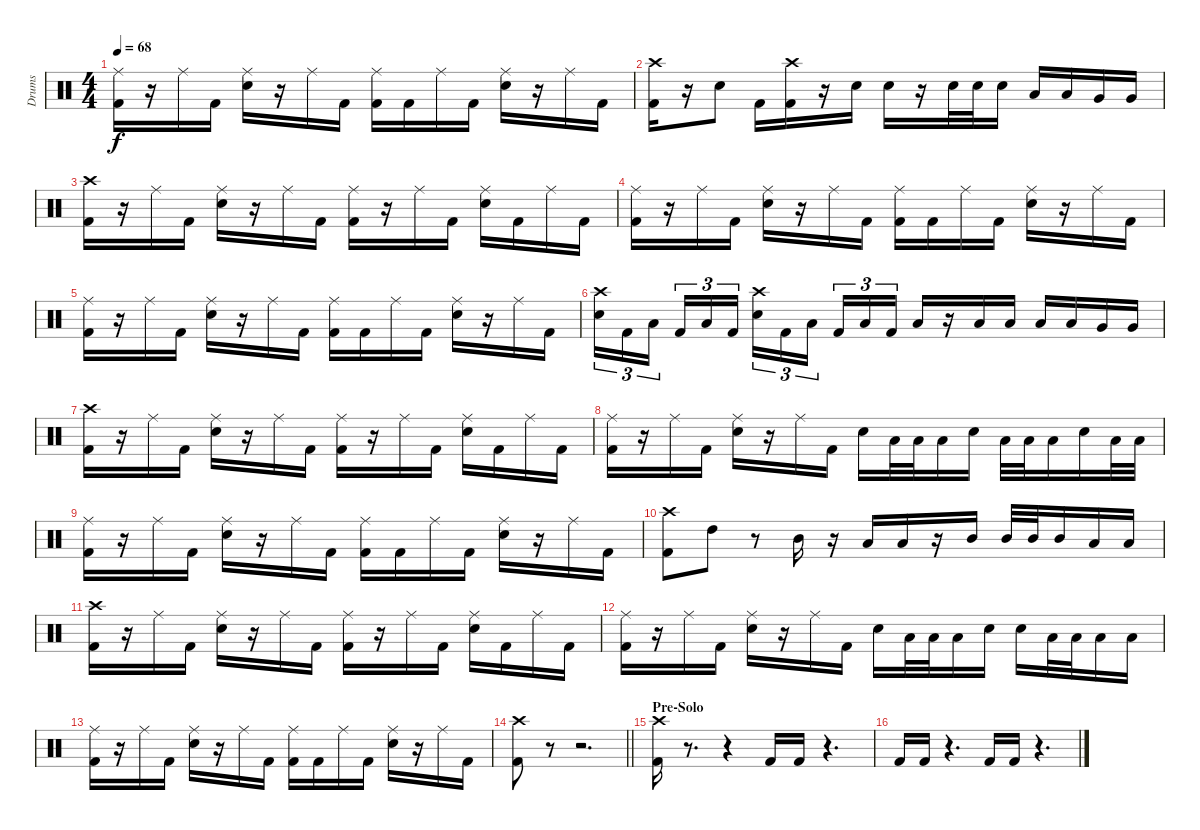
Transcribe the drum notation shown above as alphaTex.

\track ("Drums" "Drums") {instrument percussion}
\staff {score}
\articulation defaults
\ts (4 4)
\tempo 68
\clef neutral
\ks c
("Ride (middle)" "Kick (hit) 2").16{dy f} r.16 "Ride (middle)".16 "Kick (hit) 2".16 ("Ride (middle)" "Snare (hit) 2").16 r.16 "Ride (middle)".16 "Kick (hit) 2".16 ("Ride (middle)" "Kick (hit) 2").16 "Kick (hit) 2".16 "Ride (middle)".16 "Kick (hit) 2".16 ("Ride (middle)" "Snare (hit) 2").16 r.16 "Ride (middle)".16 "Kick (hit) 2".16 |
("Crash high (hit)" "Kick (hit) 2").16 r.16 "Snare (hit) 2".8 "Kick (hit) 2".16 ("Crash high (hit)" "Kick (hit) 2").16 r.16 "Snare (hit) 2".16 "Snare (hit) 2".16 r.16 "Snare (hit) 2".32 "Snare (hit) 2".32 "Snare (hit) 2".16 "Low Tom (hit)".16 "Low Tom (hit)".16 "Very Low Tom (hit)".16 "Very Low Tom (hit)".16 |
("Crash high (hit)" "Kick (hit) 2").16 r.16 "Ride (middle)".16 "Kick (hit) 2".16 ("Ride (middle)" "Snare (hit) 2").16 r.16 "Ride (middle)".16 "Kick (hit) 2".16 ("Ride (middle)" "Kick (hit) 2").16 r.16 "Ride (middle)".16 "Kick (hit) 2".16 ("Ride (middle)" "Snare (hit) 2").16 "Kick (hit) 2".16 "Ride (middle)".16 "Kick (hit) 2".16 |
("Ride (middle)" "Kick (hit) 2").16 r.16 "Ride (middle)".16 "Kick (hit) 2".16 ("Ride (middle)" "Snare (hit) 2").16 r.16 "Ride (middle)".16 "Kick (hit) 2".16 ("Ride (middle)" "Kick (hit) 2").16 "Kick (hit) 2".16 "Ride (middle)".16 "Kick (hit) 2".16 ("Ride (middle)" "Snare (hit) 2").16 r.16 "Ride (middle)".16 "Kick (hit) 2".16 |
("Ride (middle)" "Kick (hit) 2").16 r.16 "Ride (middle)".16 "Kick (hit) 2".16 ("Ride (middle)" "Snare (hit) 2").16 r.16 "Ride (middle)".16 "Kick (hit) 2".16 ("Ride (middle)" "Kick (hit) 2").16 "Kick (hit) 2".16 "Ride (middle)".16 "Kick (hit) 2".16 ("Ride (middle)" "Snare (hit) 2").16 r.16 "Ride (middle)".16 "Kick (hit) 2".16 |
("Crash high (hit)" "Snare (hit) 2").16{tu (3 2)} "Kick (hit) 2".16{tu (3 2)} "Low Tom (hit)".16{tu (3 2) beam splitsecondary} "Kick (hit) 2".16{tu (3 2)} "Low Tom (hit)".16{tu (3 2)} "Kick (hit) 2".16{tu (3 2)} ("Crash high (hit)" "Snare (hit) 2").16{tu (3 2)} "Kick (hit) 2".16{tu (3 2)} "Low Tom (hit)".16{tu (3 2) beam splitsecondary} "Kick (hit) 2".16{tu (3 2)} "Low Tom (hit)".16{tu (3 2)} "Kick (hit) 2".16{tu (3 2)} "Low Tom (hit)".16 r.16 "Low Tom (hit)".16 "Low Tom (hit)".16 "Low Tom (hit)".16 "Low Tom (hit)".16 "Very Low Tom (hit)".16 "Very Low Tom (hit)".16 |
("Crash high (hit)" "Kick (hit) 2").16 r.16 "Ride (middle)".16 "Kick (hit) 2".16 ("Ride (middle)" "Snare (hit) 2").16 r.16 "Ride (middle)".16 "Kick (hit) 2".16 ("Ride (middle)" "Kick (hit) 2").16 r.16 "Ride (middle)".16 "Kick (hit) 2".16 ("Ride (middle)" "Snare (hit) 2").16 "Kick (hit) 2".16 "Ride (middle)".16 "Kick (hit) 2".16 |
("Ride (middle)" "Kick (hit) 2").16 r.16 "Ride (middle)".16 "Kick (hit) 2".16 ("Ride (middle)" "Snare (hit) 2").16 r.16 "Ride (middle)".16 "Kick (hit) 2".16 "Snare (hit) 2".16 "Low Tom (hit)".32 "Low Tom (hit)".32 "Low Tom (hit)".16 "Snare (hit) 2".16 "Low Tom (hit)".32 "Low Tom (hit)".32 "Low Tom (hit)".16 "Snare (hit) 2".16 "Low Tom (hit)".32 "Low Tom (hit)".32 |
("Ride (middle)" "Kick (hit) 2").16 r.16 "Ride (middle)".16 "Kick (hit) 2".16 ("Ride (middle)" "Snare (hit) 2").16 r.16 "Ride (middle)".16 "Kick (hit) 2".16 ("Ride (middle)" "Kick (hit) 2").16 "Kick (hit) 2".16 "Ride (middle)".16 "Kick (hit) 2".16 ("Ride (middle)" "Snare (hit) 2").16 r.16 "Ride (middle)".16 "Kick (hit) 2".16 |
("Crash high (hit)" "Kick (hit) 2").8 "High Tom (hit)".8 r.8 "Mid Tom (hit)".16 r.16 "Low Tom (hit)".16 "Low Tom (hit)".16 r.16 "Mid Tom (hit)".16 "Mid Tom (hit)".32 "Mid Tom (hit)".32 "Mid Tom (hit)".16 "Low Tom (hit)".16 "Low Tom (hit)".16 |
("Crash high (hit)" "Kick (hit) 2").16 r.16 "Ride (middle)".16 "Kick (hit) 2".16 ("Ride (middle)" "Snare (hit) 2").16 r.16 "Ride (middle)".16 "Kick (hit) 2".16 ("Ride (middle)" "Kick (hit) 2").16 r.16 "Ride (middle)".16 "Kick (hit) 2".16 ("Ride (middle)" "Snare (hit) 2").16 "Kick (hit) 2".16 "Ride (middle)".16 "Kick (hit) 2".16 |
("Ride (middle)" "Kick (hit) 2").16 r.16 "Ride (middle)".16 "Kick (hit) 2".16 ("Ride (middle)" "Snare (hit) 2").16 r.16 "Ride (middle)".16 "Kick (hit) 2".16 "Snare (hit) 2".16 "Low Tom (hit)".32 "Low Tom (hit)".32 "Low Tom (hit)".16 "Snare (hit) 2".16 "Snare (hit) 2".16 "Low Tom (hit)".32 "Low Tom (hit)".32 "Low Tom (hit)".16 "Low Tom (hit)".16 |
("Ride (middle)" "Kick (hit) 2").16 r.16 "Ride (middle)".16 "Kick (hit) 2".16 ("Ride (middle)" "Snare (hit) 2").16 r.16 "Ride (middle)".16 "Kick (hit) 2".16 ("Ride (middle)" "Kick (hit) 2").16 "Kick (hit) 2".16 "Ride (middle)".16 "Kick (hit) 2".16 ("Ride (middle)" "Snare (hit) 2").16 r.16 "Ride (middle)".16 "Kick (hit) 2".16 |
\barLineRight lightlight
("Crash high (hit)" "Kick (hit) 2").8 r.8 r.2{d} |
\section ("" "Pre-Solo")
("Crash high (hit)" "Kick (hit) 2").16 r.8{d} r.4 "Kick (hit) 2".16 "Kick (hit) 2".16 r.4{d} |
"Kick (hit) 2".16 "Kick (hit) 2".16 r.4{d} "Kick (hit) 2".16 "Kick (hit) 2".16 r.4{d}
